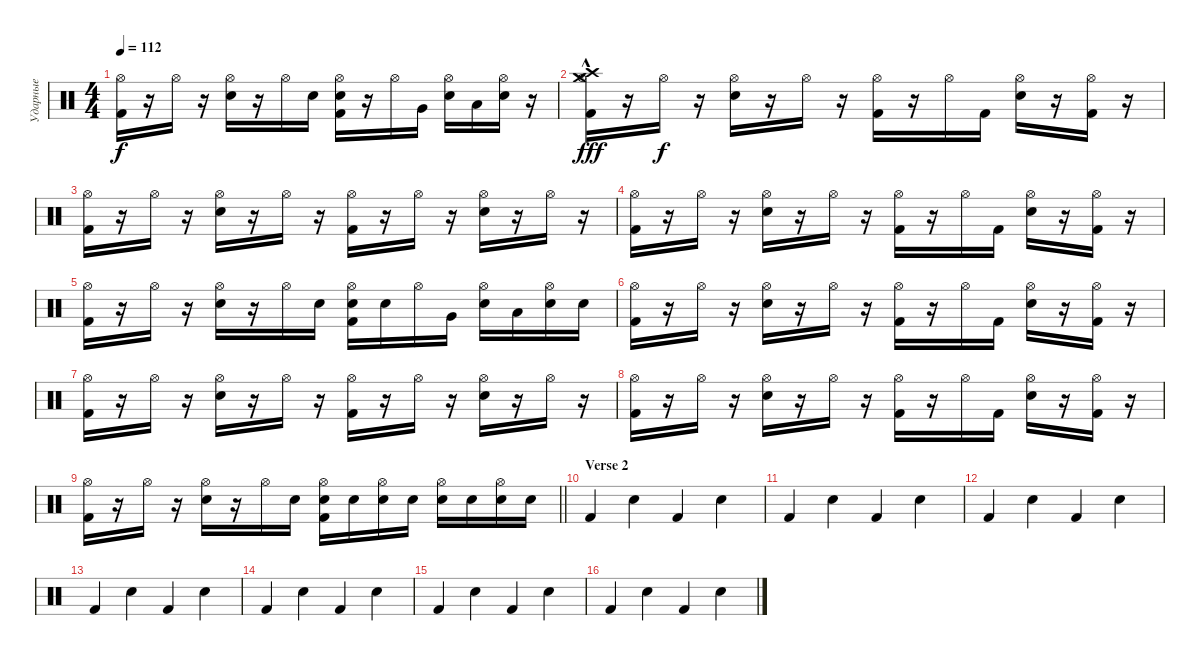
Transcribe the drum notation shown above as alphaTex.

\track ("Ударные" "Ударные") {instrument percussion}
\staff {score}
\articulation defaults
\ts (4 4)
\tempo 112
\clef neutral
\ks c
("Hi-Hat (open)" "Kick (hit) 2").16{dy f} r.16 "Hi-Hat (open)".16 r.16 ("Hi-Hat (open)" "Snare (hit) 2").16 r.16 "Hi-Hat (open)".16 "Snare (hit) 2".16 ("Hi-Hat (open)" "Electric Snare (hit)" "Kick (hit) 2").16 r.16 "Hi-Hat (open)".16 "Very Low Tom (hit)".16 ("Hi-Hat (open)" "Snare (hit) 2").16 "Low Floor Tom (hit)".16 ("Hi-Hat (open)" "Electric Snare (hit)").16 r.16 |
("Crash high (hit)"{hac} "Crash medium (hit)"{hac} "Hi-Hat (open)" "Kick (hit) 2").16{dy fff} r.16 "Hi-Hat (open)".16{dy f} r.16 ("Hi-Hat (open)" "Snare (hit) 2").16 r.16 "Hi-Hat (open)".16 r.16 ("Hi-Hat (open)" "Kick (hit) 2").16 r.16 "Hi-Hat (open)".16 "Kick (hit) 2".16 ("Hi-Hat (open)" "Snare (hit) 2").16 r.16 ("Hi-Hat (open)" "Kick (hit) 2").16 r.16 |
("Hi-Hat (open)" "Kick (hit) 2").16 r.16 "Hi-Hat (open)".16 r.16 ("Hi-Hat (open)" "Snare (hit) 2").16 r.16 "Hi-Hat (open)".16 r.16 ("Hi-Hat (open)" "Kick (hit) 2").16 r.16 "Hi-Hat (open)".16 r.16 ("Hi-Hat (open)" "Snare (hit) 2").16 r.16 "Hi-Hat (open)".16 r.16 |
("Hi-Hat (open)" "Kick (hit) 2").16 r.16 "Hi-Hat (open)".16 r.16 ("Hi-Hat (open)" "Snare (hit) 2").16 r.16 "Hi-Hat (open)".16 r.16 ("Hi-Hat (open)" "Kick (hit) 2").16 r.16 "Hi-Hat (open)".16 "Kick (hit) 2".16 ("Hi-Hat (open)" "Snare (hit) 2").16 r.16 ("Hi-Hat (open)" "Kick (hit) 2").16 r.16 |
("Hi-Hat (open)" "Kick (hit) 2").16 r.16 "Hi-Hat (open)".16 r.16 ("Hi-Hat (open)" "Snare (hit) 2").16 r.16 "Hi-Hat (open)".16 "Snare (hit) 2".16 ("Hi-Hat (open)" "Electric Snare (hit)" "Kick (hit) 2").16 "Snare (hit) 2".16 "Hi-Hat (open)".16 "Very Low Tom (hit)".16 ("Hi-Hat (open)" "Snare (hit) 2").16 "Low Floor Tom (hit)".16 ("Hi-Hat (open)" "Electric Snare (hit)").16 "Snare (hit) 2".16 |
("Hi-Hat (open)" "Kick (hit) 2").16 r.16 "Hi-Hat (open)".16 r.16 ("Hi-Hat (open)" "Snare (hit) 2").16 r.16 "Hi-Hat (open)".16 r.16 ("Hi-Hat (open)" "Kick (hit) 2").16 r.16 "Hi-Hat (open)".16 "Kick (hit) 2".16 ("Hi-Hat (open)" "Snare (hit) 2").16 r.16 ("Hi-Hat (open)" "Kick (hit) 2").16 r.16 |
("Hi-Hat (open)" "Kick (hit) 2").16 r.16 "Hi-Hat (open)".16 r.16 ("Hi-Hat (open)" "Snare (hit) 2").16 r.16 "Hi-Hat (open)".16 r.16 ("Hi-Hat (open)" "Kick (hit) 2").16 r.16 "Hi-Hat (open)".16 r.16 ("Hi-Hat (open)" "Snare (hit) 2").16 r.16 "Hi-Hat (open)".16 r.16 |
("Hi-Hat (open)" "Kick (hit) 2").16 r.16 "Hi-Hat (open)".16 r.16 ("Hi-Hat (open)" "Snare (hit) 2").16 r.16 "Hi-Hat (open)".16 r.16 ("Hi-Hat (open)" "Kick (hit) 2").16 r.16 "Hi-Hat (open)".16 "Kick (hit) 2".16 ("Hi-Hat (open)" "Snare (hit) 2").16 r.16 ("Hi-Hat (open)" "Kick (hit) 2").16 r.16 |
\barLineRight lightlight
("Hi-Hat (open)" "Kick (hit) 2").16 r.16 "Hi-Hat (open)".16 r.16 ("Hi-Hat (open)" "Snare (hit) 2").16 r.16 "Hi-Hat (open)".16 "Snare (hit) 2".16 ("Hi-Hat (open)" "Electric Snare (hit)" "Kick (hit) 2").16 "Snare (hit) 2".16 ("Hi-Hat (open)" "Snare (hit) 2").16 "Snare (hit) 2".16 ("Hi-Hat (open)" "Snare (hit) 2").16 "Snare (hit) 2".16 ("Hi-Hat (open)" "Electric Snare (hit)").16 "Snare (hit) 2".16 |
\section ("" "Verse 2")
"Kick (hit) 2".4 "Snare (hit) 2".4 "Kick (hit) 2".4 "Snare (hit) 2".4 |
"Kick (hit) 2".4 "Snare (hit) 2".4 "Kick (hit) 2".4 "Snare (hit) 2".4 |
"Kick (hit) 2".4 "Snare (hit) 2".4 "Kick (hit) 2".4 "Snare (hit) 2".4 |
"Kick (hit) 2".4 "Snare (hit) 2".4 "Kick (hit) 2".4 "Snare (hit) 2".4 |
"Kick (hit) 2".4 "Snare (hit) 2".4 "Kick (hit) 2".4 "Snare (hit) 2".4 |
"Kick (hit) 2".4 "Snare (hit) 2".4 "Kick (hit) 2".4 "Snare (hit) 2".4 |
"Kick (hit) 2".4 "Snare (hit) 2".4 "Kick (hit) 2".4 "Snare (hit) 2".4
